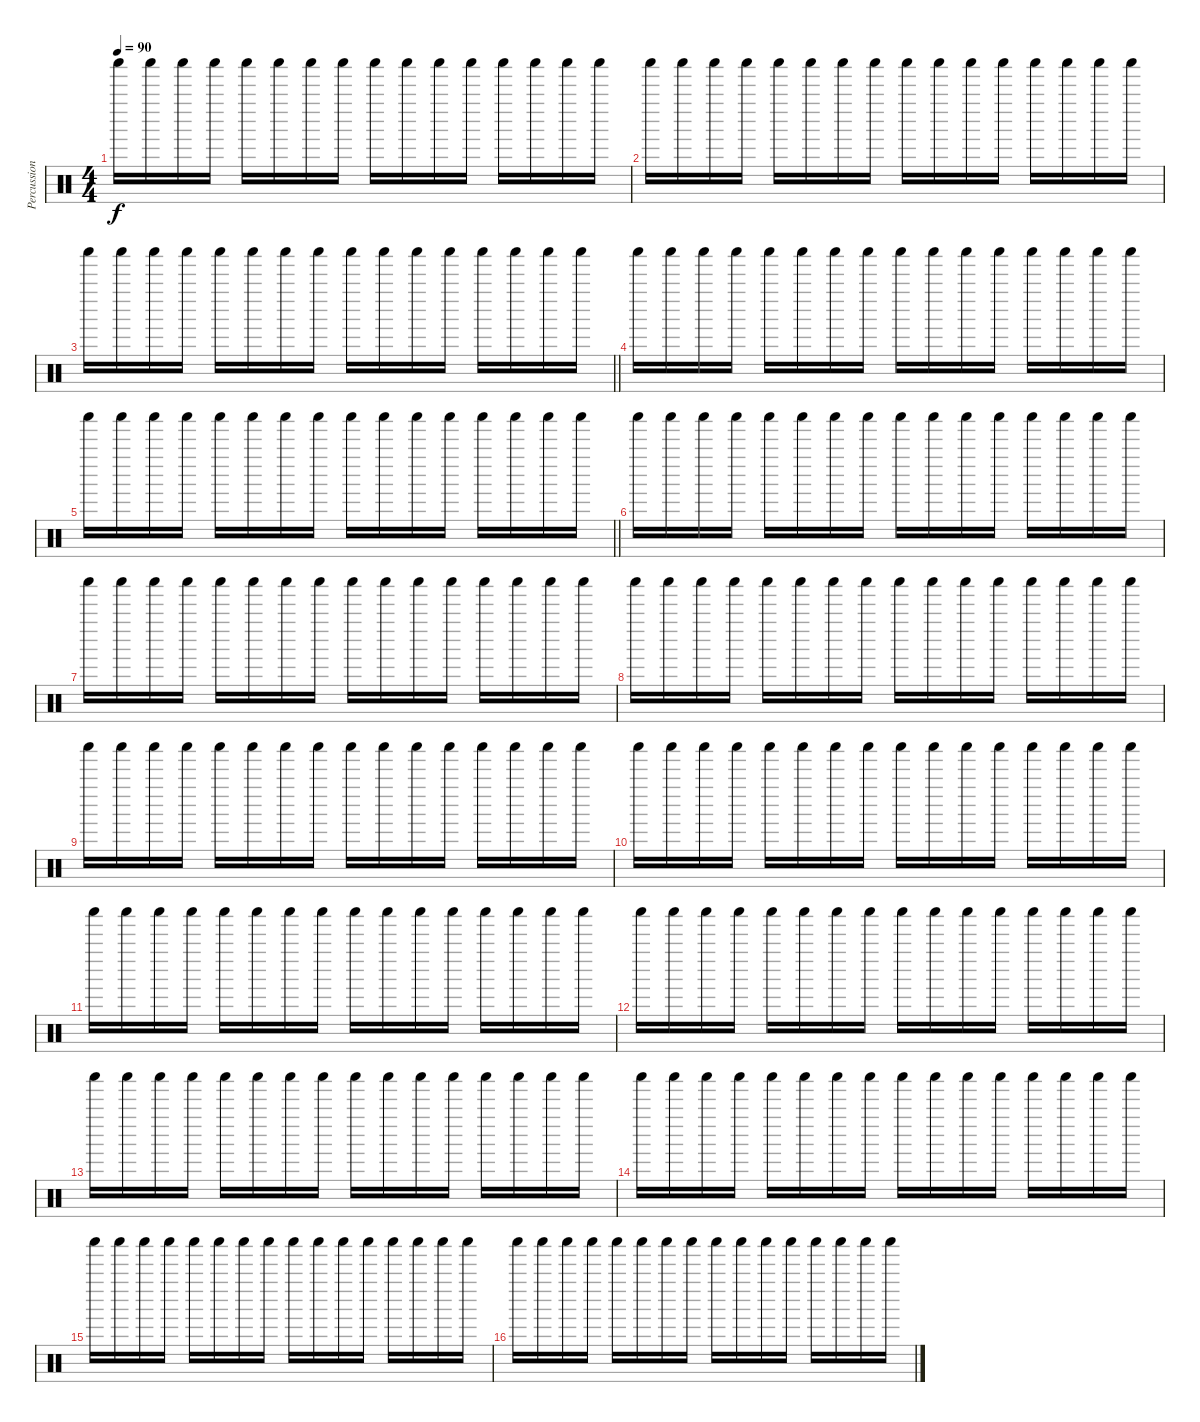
\track ("Percussion" "Percussion") {instrument percussion}
\staff {score}
\articulation defaults
\ts (4 4)
\tempo 90
\clef neutral
\ks c "Shaker (hit)".16{dy f} "Shaker (hit)".16 "Shaker (hit)".16 "Shaker (hit)".16 "Shaker (hit)".16 "Shaker (hit)".16 "Shaker (hit)".16 "Shaker (hit)".16 "Shaker (hit)".16 "Shaker (hit)".16 "Shaker (hit)".16 "Shaker (hit)".16 "Shaker (hit)".16 "Shaker (hit)".16 "Shaker (hit)".16 "Shaker (hit)".16
|
"Shaker (hit)".16 "Shaker (hit)".16 "Shaker (hit)".16 "Shaker (hit)".16 "Shaker (hit)".16 "Shaker (hit)".16 "Shaker (hit)".16 "Shaker (hit)".16 "Shaker (hit)".16 "Shaker (hit)".16 "Shaker (hit)".16 "Shaker (hit)".16 "Shaker (hit)".16 "Shaker (hit)".16 "Shaker (hit)".16 "Shaker (hit)".16 |
\barLineRight lightlight "Shaker (hit)".16 "Shaker (hit)".16 "Shaker (hit)".16 "Shaker (hit)".16 "Shaker (hit)".16 "Shaker (hit)".16 "Shaker (hit)".16 "Shaker (hit)".16 "Shaker (hit)".16 "Shaker (hit)".16 "Shaker (hit)".16 "Shaker (hit)".16 "Shaker (hit)".16 "Shaker (hit)".16 "Shaker (hit)".16 "Shaker (hit)".16
|
"Shaker (hit)".16 "Shaker (hit)".16 "Shaker (hit)".16 "Shaker (hit)".16 "Shaker (hit)".16 "Shaker (hit)".16 "Shaker (hit)".16 "Shaker (hit)".16 "Shaker (hit)".16 "Shaker (hit)".16 "Shaker (hit)".16 "Shaker (hit)".16 "Shaker (hit)".16 "Shaker (hit)".16 "Shaker (hit)".16 "Shaker (hit)".16 |
\barLineRight lightlight "Shaker (hit)".16 "Shaker (hit)".16 "Shaker (hit)".16 "Shaker (hit)".16 "Shaker (hit)".16 "Shaker (hit)".16 "Shaker (hit)".16 "Shaker (hit)".16 "Shaker (hit)".16 "Shaker (hit)".16 "Shaker (hit)".16 "Shaker (hit)".16 "Shaker (hit)".16 "Shaker (hit)".16 "Shaker (hit)".16 "Shaker (hit)".16
|
"Shaker (hit)".16 "Shaker (hit)".16 "Shaker (hit)".16 "Shaker (hit)".16 "Shaker (hit)".16 "Shaker (hit)".16 "Shaker (hit)".16 "Shaker (hit)".16 "Shaker (hit)".16 "Shaker (hit)".16 "Shaker (hit)".16 "Shaker (hit)".16 "Shaker (hit)".16 "Shaker (hit)".16 "Shaker (hit)".16 "Shaker (hit)".16 |
"Shaker (hit)".16 "Shaker (hit)".16 "Shaker (hit)".16 "Shaker (hit)".16 "Shaker (hit)".16 "Shaker (hit)".16 "Shaker (hit)".16 "Shaker (hit)".16 "Shaker (hit)".16 "Shaker (hit)".16 "Shaker (hit)".16 "Shaker (hit)".16 "Shaker (hit)".16 "Shaker (hit)".16 "Shaker (hit)".16 "Shaker (hit)".16 |
"Shaker (hit)".16 "Shaker (hit)".16 "Shaker (hit)".16 "Shaker (hit)".16 "Shaker (hit)".16 "Shaker (hit)".16 "Shaker (hit)".16 "Shaker (hit)".16 "Shaker (hit)".16 "Shaker (hit)".16 "Shaker (hit)".16 "Shaker (hit)".16 "Shaker (hit)".16 "Shaker (hit)".16 "Shaker (hit)".16 "Shaker (hit)".16 |
"Shaker (hit)".16 "Shaker (hit)".16 "Shaker (hit)".16 "Shaker (hit)".16 "Shaker (hit)".16 "Shaker (hit)".16 "Shaker (hit)".16 "Shaker (hit)".16 "Shaker (hit)".16 "Shaker (hit)".16 "Shaker (hit)".16 "Shaker (hit)".16 "Shaker (hit)".16 "Shaker (hit)".16 "Shaker (hit)".16 "Shaker (hit)".16 |
"Shaker (hit)".16 "Shaker (hit)".16 "Shaker (hit)".16 "Shaker (hit)".16 "Shaker (hit)".16 "Shaker (hit)".16 "Shaker (hit)".16 "Shaker (hit)".16 "Shaker (hit)".16 "Shaker (hit)".16 "Shaker (hit)".16 "Shaker (hit)".16 "Shaker (hit)".16 "Shaker (hit)".16 "Shaker (hit)".16 "Shaker (hit)".16 |
"Shaker (hit)".16 "Shaker (hit)".16 "Shaker (hit)".16 "Shaker (hit)".16 "Shaker (hit)".16 "Shaker (hit)".16 "Shaker (hit)".16 "Shaker (hit)".16 "Shaker (hit)".16 "Shaker (hit)".16 "Shaker (hit)".16 "Shaker (hit)".16 "Shaker (hit)".16 "Shaker (hit)".16 "Shaker (hit)".16 "Shaker (hit)".16 |
"Shaker (hit)".16 "Shaker (hit)".16 "Shaker (hit)".16 "Shaker (hit)".16 "Shaker (hit)".16 "Shaker (hit)".16 "Shaker (hit)".16 "Shaker (hit)".16 "Shaker (hit)".16 "Shaker (hit)".16 "Shaker (hit)".16 "Shaker (hit)".16 "Shaker (hit)".16 "Shaker (hit)".16 "Shaker (hit)".16 "Shaker (hit)".16 |
"Shaker (hit)".16 "Shaker (hit)".16 "Shaker (hit)".16 "Shaker (hit)".16 "Shaker (hit)".16 "Shaker (hit)".16 "Shaker (hit)".16 "Shaker (hit)".16 "Shaker (hit)".16 "Shaker (hit)".16 "Shaker (hit)".16 "Shaker (hit)".16 "Shaker (hit)".16 "Shaker (hit)".16 "Shaker (hit)".16 "Shaker (hit)".16 |
"Shaker (hit)".16 "Shaker (hit)".16 "Shaker (hit)".16 "Shaker (hit)".16 "Shaker (hit)".16 "Shaker (hit)".16 "Shaker (hit)".16 "Shaker (hit)".16 "Shaker (hit)".16 "Shaker (hit)".16 "Shaker (hit)".16 "Shaker (hit)".16 "Shaker (hit)".16 "Shaker (hit)".16 "Shaker (hit)".16 "Shaker (hit)".16 |
"Shaker (hit)".16 "Shaker (hit)".16 "Shaker (hit)".16 "Shaker (hit)".16 "Shaker (hit)".16 "Shaker (hit)".16 "Shaker (hit)".16 "Shaker (hit)".16 "Shaker (hit)".16 "Shaker (hit)".16 "Shaker (hit)".16 "Shaker (hit)".16 "Shaker (hit)".16 "Shaker (hit)".16 "Shaker (hit)".16 "Shaker (hit)".16 |
"Shaker (hit)".16 "Shaker (hit)".16 "Shaker (hit)".16 "Shaker (hit)".16 "Shaker (hit)".16 "Shaker (hit)".16 "Shaker (hit)".16 "Shaker (hit)".16 "Shaker (hit)".16 "Shaker (hit)".16 "Shaker (hit)".16 "Shaker (hit)".16 "Shaker (hit)".16 "Shaker (hit)".16 "Shaker (hit)".16 "Shaker (hit)".16
